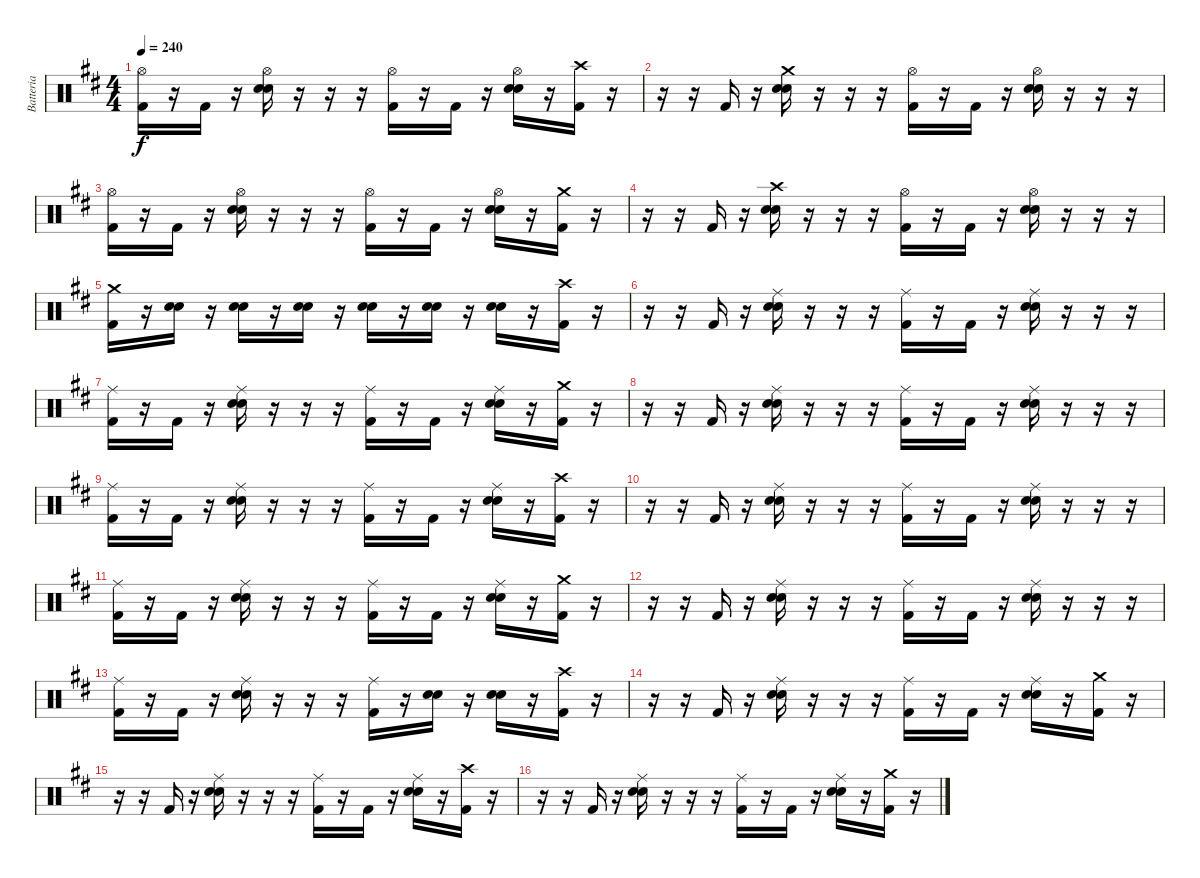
\track ("Batteria" "Batteria") {instrument percussion}
\staff {score}
\articulation defaults
\ts (4 4)
\tempo 240
\clef neutral
\ks d
("Kick (hit) 2" "Hi-Hat (open)").16{dy f} r.16 "Kick (hit) 2".16 r.16 ("Snare (hit) 2" "Snare (hit) 2" "Hi-Hat (open)").16 r.16 r.16 r.16 ("Kick (hit) 2" "Hi-Hat (open)").16 r.16 "Kick (hit) 2".16 r.16 ("Snare (hit) 2" "Snare (hit) 2" "Hi-Hat (open)").16 r.16 ("Kick (hit) 2" "Crash high (hit)").16 r.16 |
r.16 r.16 "Kick (hit) 2".16 r.16 ("Snare (hit) 2" "Snare (hit) 2" "Crash medium (hit)").16 r.16 r.16 r.16 ("Kick (hit) 2" "Hi-Hat (open)").16 r.16 "Kick (hit) 2".16 r.16 ("Snare (hit) 2" "Snare (hit) 2" "Hi-Hat (open)").16 r.16 r.16 r.16 |
("Kick (hit) 2" "Hi-Hat (open)").16 r.16 "Kick (hit) 2".16 r.16 ("Snare (hit) 2" "Snare (hit) 2" "Hi-Hat (open)").16 r.16 r.16 r.16 ("Kick (hit) 2" "Hi-Hat (open)").16 r.16 "Kick (hit) 2".16 r.16 ("Snare (hit) 2" "Snare (hit) 2" "Hi-Hat (open)").16 r.16 ("Kick (hit) 2" "Crash medium (hit)").16 r.16 |
r.16 r.16 "Kick (hit) 2".16 r.16 ("Snare (hit) 2" "Snare (hit) 2" "Crash high (hit)").16 r.16 r.16 r.16 ("Kick (hit) 2" "Hi-Hat (open)").16 r.16 "Kick (hit) 2".16 r.16 ("Snare (hit) 2" "Snare (hit) 2" "Hi-Hat (open)").16 r.16 r.16 r.16 |
("Kick (hit) 2" "Crash medium (hit)").16 r.16 ("Snare (hit) 2" "Snare (hit) 2").16 r.16 ("Snare (hit) 2" "Snare (hit) 2").16 r.16 ("Snare (hit) 2" "Snare (hit) 2").16 r.16 ("Snare (hit) 2" "Snare (hit) 2").16 r.16 ("Snare (hit) 2" "Snare (hit) 2").16 r.16 ("Snare (hit) 2" "Snare (hit) 2").16 r.16 ("Kick (hit) 2" "Crash high (hit)").16 r.16 |
r.16 r.16 "Kick (hit) 2".16 r.16 ("Snare (hit) 2" "Snare (hit) 2" "Ride (middle)").16 r.16 r.16 r.16 ("Kick (hit) 2" "Ride (middle)").16 r.16 "Kick (hit) 2".16 r.16 ("Snare (hit) 2" "Snare (hit) 2" "Ride (middle)").16 r.16 r.16 r.16 |
("Kick (hit) 2" "Ride (middle)").16 r.16 "Kick (hit) 2".16 r.16 ("Snare (hit) 2" "Snare (hit) 2" "Ride (middle)").16 r.16 r.16 r.16 ("Kick (hit) 2" "Ride (middle)").16 r.16 "Kick (hit) 2".16 r.16 ("Snare (hit) 2" "Snare (hit) 2" "Ride (middle)").16 r.16 ("Kick (hit) 2" "Crash medium (hit)").16 r.16 |
r.16 r.16 "Kick (hit) 2".16 r.16 ("Snare (hit) 2" "Snare (hit) 2" "Ride (middle)").16 r.16 r.16 r.16 ("Kick (hit) 2" "Ride (middle)").16 r.16 "Kick (hit) 2".16 r.16 ("Snare (hit) 2" "Snare (hit) 2" "Ride (middle)").16 r.16 r.16 r.16 |
("Kick (hit) 2" "Ride (middle)").16 r.16 "Kick (hit) 2".16 r.16 ("Snare (hit) 2" "Snare (hit) 2" "Ride (middle)").16 r.16 r.16 r.16 ("Kick (hit) 2" "Ride (middle)").16 r.16 "Kick (hit) 2".16 r.16 ("Snare (hit) 2" "Snare (hit) 2" "Ride (middle)").16 r.16 ("Kick (hit) 2" "Crash high (hit)").16 r.16 |
r.16 r.16 "Kick (hit) 2".16 r.16 ("Snare (hit) 2" "Snare (hit) 2" "Ride (middle)").16 r.16 r.16 r.16 ("Kick (hit) 2" "Ride (middle)").16 r.16 "Kick (hit) 2".16 r.16 ("Snare (hit) 2" "Snare (hit) 2" "Ride (middle)").16 r.16 r.16 r.16 |
("Kick (hit) 2" "Ride (middle)").16 r.16 "Kick (hit) 2".16 r.16 ("Snare (hit) 2" "Snare (hit) 2" "Ride (middle)").16 r.16 r.16 r.16 ("Kick (hit) 2" "Ride (middle)").16 r.16 "Kick (hit) 2".16 r.16 ("Snare (hit) 2" "Snare (hit) 2" "Ride (middle)").16 r.16 ("Kick (hit) 2" "Crash medium (hit)").16 r.16 |
r.16 r.16 "Kick (hit) 2".16 r.16 ("Snare (hit) 2" "Snare (hit) 2" "Ride (middle)").16 r.16 r.16 r.16 ("Kick (hit) 2" "Ride (middle)").16 r.16 "Kick (hit) 2".16 r.16 ("Snare (hit) 2" "Snare (hit) 2" "Ride (middle)").16 r.16 r.16 r.16 |
("Kick (hit) 2" "Ride (middle)").16 r.16 "Kick (hit) 2".16 r.16 ("Snare (hit) 2" "Snare (hit) 2" "Ride (middle)").16 r.16 r.16 r.16 ("Kick (hit) 2" "Ride (middle)").16 r.16 ("Snare (hit) 2" "Snare (hit) 2").16 r.16 ("Snare (hit) 2" "Snare (hit) 2").16 r.16 ("Kick (hit) 2" "Crash high (hit)").16 r.16 |
r.16 r.16 "Kick (hit) 2".16 r.16 ("Snare (hit) 2" "Snare (hit) 2" "Ride (middle)").16 r.16 r.16 r.16 ("Kick (hit) 2" "Ride (middle)").16 r.16 "Kick (hit) 2".16 r.16 ("Snare (hit) 2" "Snare (hit) 2" "Ride (middle)").16 r.16 ("Kick (hit) 2" "Crash medium (hit)").16 r.16 |
r.16 r.16 "Kick (hit) 2".16 r.16 ("Snare (hit) 2" "Snare (hit) 2" "Ride (middle)").16 r.16 r.16 r.16 ("Kick (hit) 2" "Ride (middle)").16 r.16 "Kick (hit) 2".16 r.16 ("Snare (hit) 2" "Snare (hit) 2" "Ride (middle)").16 r.16 ("Kick (hit) 2" "Crash high (hit)").16 r.16 |
r.16 r.16 "Kick (hit) 2".16 r.16 ("Snare (hit) 2" "Snare (hit) 2" "Ride (middle)").16 r.16 r.16 r.16 ("Kick (hit) 2" "Ride (middle)").16 r.16 "Kick (hit) 2".16 r.16 ("Snare (hit) 2" "Snare (hit) 2" "Ride (middle)").16 r.16 ("Kick (hit) 2" "Crash medium (hit)").16 r.16
